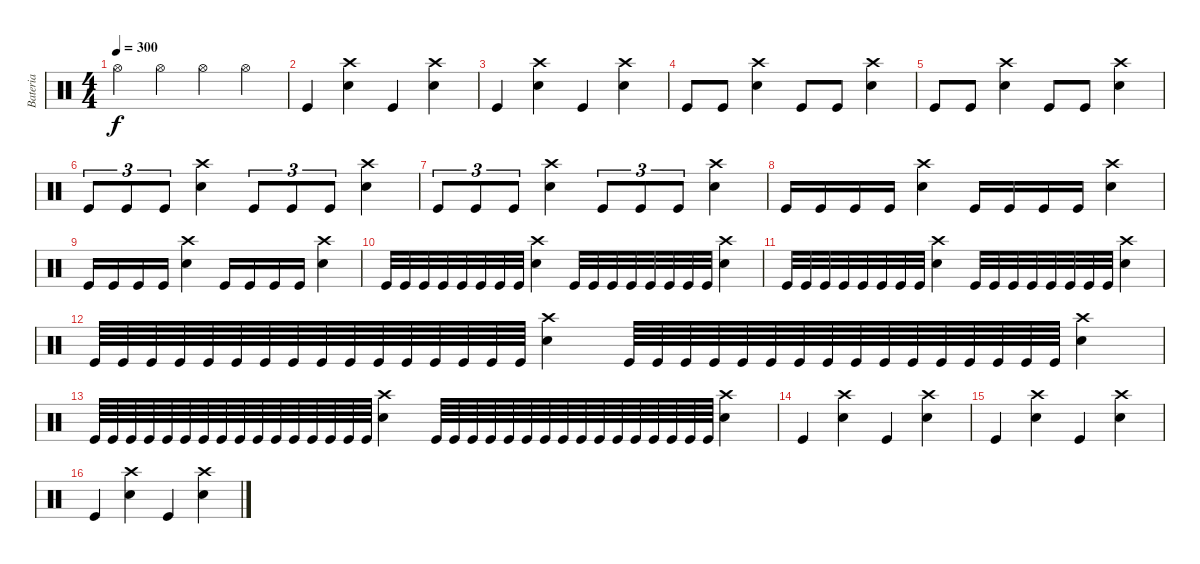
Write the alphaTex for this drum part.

\track ("Bateria" "Bateria") {instrument percussion}
\staff {score}
\articulation defaults
\ts (4 4)
\tempo 300
\clef neutral
\ks c "Hi-Hat (open)".4{dy f} "Hi-Hat (open)".4 "Hi-Hat (open)".4 "Hi-Hat (open)".4
|
"Kick (hit)".4 ("Crash high (hit)" "Electric Snare (hit)").4 "Kick (hit)".4 ("Crash high (hit)" "Electric Snare (hit)").4 |
"Kick (hit)".4 ("Crash high (hit)" "Electric Snare (hit)").4 "Kick (hit)".4 ("Crash high (hit)" "Electric Snare (hit)").4 |
"Kick (hit)".8 "Kick (hit)".8 ("Crash high (hit)" "Electric Snare (hit)").4 "Kick (hit)".8 "Kick (hit)".8 ("Crash high (hit)" "Electric Snare (hit)").4 |
"Kick (hit)".8 "Kick (hit)".8 ("Crash high (hit)" "Electric Snare (hit)").4 "Kick (hit)".8 "Kick (hit)".8 ("Crash high (hit)" "Electric Snare (hit)").4 |
"Kick (hit)".8{tu (3 2)} "Kick (hit)".8{tu (3 2)} "Kick (hit)".8{tu (3 2)} ("Crash high (hit)" "Electric Snare (hit)").4 "Kick (hit)".8{tu (3 2)} "Kick (hit)".8{tu (3 2)} "Kick (hit)".8{tu (3 2)} ("Crash high (hit)" "Electric Snare (hit)").4 |
"Kick (hit)".8{tu (3 2)} "Kick (hit)".8{tu (3 2)} "Kick (hit)".8{tu (3 2)} ("Crash high (hit)" "Electric Snare (hit)").4 "Kick (hit)".8{tu (3 2)} "Kick (hit)".8{tu (3 2)} "Kick (hit)".8{tu (3 2)} ("Crash high (hit)" "Electric Snare (hit)").4 |
"Kick (hit)".16 "Kick (hit)".16 "Kick (hit)".16 "Kick (hit)".16 ("Electric Snare (hit)" "Crash high (hit)").4 "Kick (hit)".16 "Kick (hit)".16 "Kick (hit)".16 "Kick (hit)".16 ("Electric Snare (hit)" "Crash high (hit)").4 |
"Kick (hit)".16 "Kick (hit)".16 "Kick (hit)".16 "Kick (hit)".16 ("Electric Snare (hit)" "Crash high (hit)").4 "Kick (hit)".16 "Kick (hit)".16 "Kick (hit)".16 "Kick (hit)".16 ("Electric Snare (hit)" "Crash high (hit)").4 |
"Kick (hit)".32 "Kick (hit)".32 "Kick (hit)".32 "Kick (hit)".32 "Kick (hit)".32 "Kick (hit)".32 "Kick (hit)".32 "Kick (hit)".32 ("Electric Snare (hit)" "Crash high (hit)").4 "Kick (hit)".32 "Kick (hit)".32 "Kick (hit)".32 "Kick (hit)".32 "Kick (hit)".32 "Kick (hit)".32 "Kick (hit)".32 "Kick (hit)".32 ("Electric Snare (hit)" "Crash high (hit)").4 |
"Kick (hit)".32 "Kick (hit)".32 "Kick (hit)".32 "Kick (hit)".32 "Kick (hit)".32 "Kick (hit)".32 "Kick (hit)".32 "Kick (hit)".32 ("Electric Snare (hit)" "Crash high (hit)").4 "Kick (hit)".32 "Kick (hit)".32 "Kick (hit)".32 "Kick (hit)".32 "Kick (hit)".32 "Kick (hit)".32 "Kick (hit)".32 "Kick (hit)".32 ("Electric Snare (hit)" "Crash high (hit)").4 |
"Kick (hit)".64 "Kick (hit)".64 "Kick (hit)".64 "Kick (hit)".64 "Kick (hit)".64 "Kick (hit)".64 "Kick (hit)".64 "Kick (hit)".64 "Kick (hit)".64 "Kick (hit)".64 "Kick (hit)".64 "Kick (hit)".64 "Kick (hit)".64 "Kick (hit)".64 "Kick (hit)".64 "Kick (hit)".64 ("Electric Snare (hit)" "Crash high (hit)").4 "Kick (hit)".64 "Kick (hit)".64 "Kick (hit)".64 "Kick (hit)".64 "Kick (hit)".64 "Kick (hit)".64 "Kick (hit)".64 "Kick (hit)".64 "Kick (hit)".64 "Kick (hit)".64 "Kick (hit)".64 "Kick (hit)".64 "Kick (hit)".64 "Kick (hit)".64 "Kick (hit)".64 "Kick (hit)".64 ("Electric Snare (hit)" "Crash high (hit)").4 |
"Kick (hit)".64 "Kick (hit)".64 "Kick (hit)".64 "Kick (hit)".64 "Kick (hit)".64 "Kick (hit)".64 "Kick (hit)".64 "Kick (hit)".64 "Kick (hit)".64 "Kick (hit)".64 "Kick (hit)".64 "Kick (hit)".64 "Kick (hit)".64 "Kick (hit)".64 "Kick (hit)".64 "Kick (hit)".64 ("Electric Snare (hit)" "Crash high (hit)").4 "Kick (hit)".64 "Kick (hit)".64 "Kick (hit)".64 "Kick (hit)".64 "Kick (hit)".64 "Kick (hit)".64 "Kick (hit)".64 "Kick (hit)".64 "Kick (hit)".64 "Kick (hit)".64 "Kick (hit)".64 "Kick (hit)".64 "Kick (hit)".64 "Kick (hit)".64 "Kick (hit)".64 "Kick (hit)".64 ("Electric Snare (hit)" "Crash high (hit)").4 |
"Kick (hit)".4 ("Crash high (hit)" "Electric Snare (hit)").4 "Kick (hit)".4 ("Crash high (hit)" "Electric Snare (hit)").4 |
"Kick (hit)".4 ("Crash high (hit)" "Electric Snare (hit)").4 "Kick (hit)".4 ("Crash high (hit)" "Electric Snare (hit)").4 |
"Kick (hit)".4 ("Crash high (hit)" "Electric Snare (hit)").4 "Kick (hit)".4 ("Crash high (hit)" "Electric Snare (hit)").4
